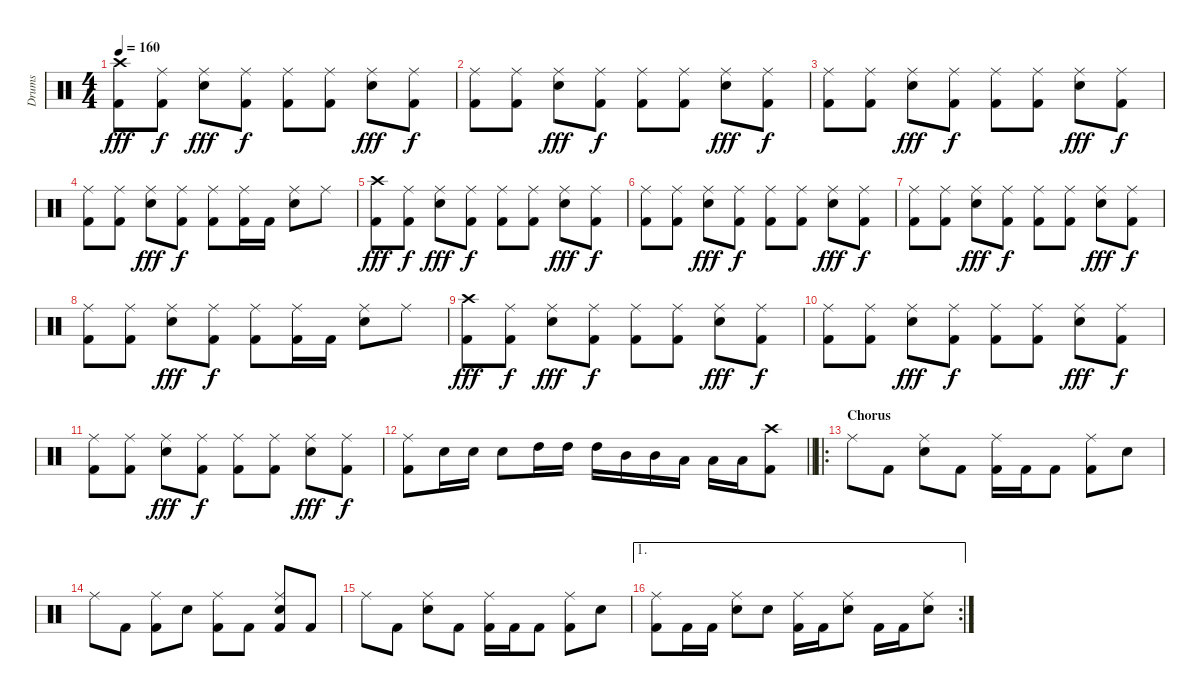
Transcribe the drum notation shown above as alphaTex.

\track ("Drums" "Drums") {instrument percussion}
\staff {score}
\articulation defaults
\ts (4 4)
\tempo 160
\clef neutral
\ks c
("Kick (hit) 2" "Crash high (hit)").8{dy fff} ("Kick (hit) 2" "Ride (middle)").8{dy f} ("Snare (hit) 2" "Ride (middle)").8{dy fff} ("Kick (hit) 2" "Ride (middle)").8{dy f} ("Kick (hit) 2" "Ride (middle)").8 ("Kick (hit) 2" "Ride (middle)").8 ("Snare (hit) 2" "Ride (middle)").8{dy fff} ("Kick (hit) 2" "Ride (middle)").8{dy f} |
("Kick (hit) 2" "Ride (middle)").8 ("Kick (hit) 2" "Ride (middle)").8 ("Snare (hit) 2" "Ride (middle)").8{dy fff} ("Kick (hit) 2" "Ride (middle)").8{dy f} ("Kick (hit) 2" "Ride (middle)").8 ("Kick (hit) 2" "Ride (middle)").8 ("Snare (hit) 2" "Ride (middle)").8{dy fff} ("Kick (hit) 2" "Ride (middle)").8{dy f} |
("Kick (hit) 2" "Ride (middle)").8 ("Kick (hit) 2" "Ride (middle)").8 ("Snare (hit) 2" "Ride (middle)").8{dy fff} ("Kick (hit) 2" "Ride (middle)").8{dy f} ("Kick (hit) 2" "Ride (middle)").8 ("Kick (hit) 2" "Ride (middle)").8 ("Snare (hit) 2" "Ride (middle)").8{dy fff} ("Kick (hit) 2" "Ride (middle)").8{dy f} |
("Kick (hit) 2" "Ride (middle)").8 ("Kick (hit) 2" "Ride (middle)").8 ("Snare (hit) 2" "Ride (middle)").8{dy fff} ("Kick (hit) 2" "Ride (middle)").8{dy f} ("Kick (hit) 2" "Ride (middle)").8 ("Kick (hit) 2" "Ride (middle)").16 "Kick (hit) 2".16 ("Snare (hit) 2" "Ride (middle)").8 "Ride (middle)".8 |
("Kick (hit) 2" "Crash high (hit)").8{dy fff} ("Kick (hit) 2" "Ride (middle)").8{dy f} ("Snare (hit) 2" "Ride (middle)").8{dy fff} ("Kick (hit) 2" "Ride (middle)").8{dy f} ("Kick (hit) 2" "Ride (middle)").8 ("Kick (hit) 2" "Ride (middle)").8 ("Snare (hit) 2" "Ride (middle)").8{dy fff} ("Kick (hit) 2" "Ride (middle)").8{dy f} |
("Kick (hit) 2" "Ride (middle)").8 ("Kick (hit) 2" "Ride (middle)").8 ("Snare (hit) 2" "Ride (middle)").8{dy fff} ("Kick (hit) 2" "Ride (middle)").8{dy f} ("Kick (hit) 2" "Ride (middle)").8 ("Kick (hit) 2" "Ride (middle)").8 ("Snare (hit) 2" "Ride (middle)").8{dy fff} ("Kick (hit) 2" "Ride (middle)").8{dy f} |
("Kick (hit) 2" "Ride (middle)").8 ("Kick (hit) 2" "Ride (middle)").8 ("Snare (hit) 2" "Ride (middle)").8{dy fff} ("Kick (hit) 2" "Ride (middle)").8{dy f} ("Kick (hit) 2" "Ride (middle)").8 ("Kick (hit) 2" "Ride (middle)").8 ("Snare (hit) 2" "Ride (middle)").8{dy fff} ("Kick (hit) 2" "Ride (middle)").8{dy f} |
("Kick (hit) 2" "Ride (middle)").8 ("Kick (hit) 2" "Ride (middle)").8 ("Snare (hit) 2" "Ride (middle)").8{dy fff} ("Kick (hit) 2" "Ride (middle)").8{dy f} ("Kick (hit) 2" "Ride (middle)").8 ("Kick (hit) 2" "Ride (middle)").16 "Kick (hit) 2".16 ("Snare (hit) 2" "Ride (middle)").8 "Ride (middle)".8 |
("Kick (hit) 2" "Crash high (hit)").8{dy fff} ("Kick (hit) 2" "Ride (middle)").8{dy f} ("Snare (hit) 2" "Ride (middle)").8{dy fff} ("Kick (hit) 2" "Ride (middle)").8{dy f} ("Kick (hit) 2" "Ride (middle)").8 ("Kick (hit) 2" "Ride (middle)").8 ("Snare (hit) 2" "Ride (middle)").8{dy fff} ("Kick (hit) 2" "Ride (middle)").8{dy f} |
("Kick (hit) 2" "Ride (middle)").8 ("Kick (hit) 2" "Ride (middle)").8 ("Snare (hit) 2" "Ride (middle)").8{dy fff} ("Kick (hit) 2" "Ride (middle)").8{dy f} ("Kick (hit) 2" "Ride (middle)").8 ("Kick (hit) 2" "Ride (middle)").8 ("Snare (hit) 2" "Ride (middle)").8{dy fff} ("Kick (hit) 2" "Ride (middle)").8{dy f} |
("Kick (hit) 2" "Ride (middle)").8 ("Kick (hit) 2" "Ride (middle)").8 ("Snare (hit) 2" "Ride (middle)").8{dy fff} ("Kick (hit) 2" "Ride (middle)").8{dy f} ("Kick (hit) 2" "Ride (middle)").8 ("Kick (hit) 2" "Ride (middle)").8 ("Snare (hit) 2" "Ride (middle)").8{dy fff} ("Kick (hit) 2" "Ride (middle)").8{dy f} |
\barLineRight lightlight
("Kick (hit) 2" "Ride (middle)").8 "Snare (hit) 2".16 "Snare (hit) 2".16 "Snare (hit) 2".8 "High Tom (hit)".16 "High Tom (hit)".16 "High Tom (hit)".16 "Mid Tom (hit)".16 "Mid Tom (hit)".16 "Low Tom (hit)".16 "Low Tom (hit)".16 "Low Tom (hit)".16 ("Kick (hit) 2" "Crash high (hit)").8 |
\ro
\section ("" "Chorus")
"Ride (middle)".8 "Kick (hit) 2".8 ("Snare (hit) 2" "Ride (middle)").8 "Kick (hit) 2".8 ("Kick (hit) 2" "Ride (middle)").16 "Kick (hit) 2".16 "Kick (hit) 2".8 ("Kick (hit) 2" "Ride (middle)").8 "Snare (hit) 2".8 |
"Ride (middle)".8 "Kick (hit) 2".8 ("Kick (hit) 2" "Ride (middle)").8 "Snare (hit) 2".8 ("Kick (hit) 2" "Ride (middle)").8 "Kick (hit) 2".8 ("Kick (hit) 2" "Snare (hit) 2" "Ride (middle)").8 "Kick (hit) 2".8 |
"Ride (middle)".8 "Kick (hit) 2".8 ("Snare (hit) 2" "Ride (middle)").8 "Kick (hit) 2".8 ("Kick (hit) 2" "Ride (middle)").16 "Kick (hit) 2".16 "Kick (hit) 2".8 ("Kick (hit) 2" "Ride (middle)").8 "Snare (hit) 2".8 |
\ae 1
\rc 2
("Kick (hit) 2" "Ride (middle)").8 "Kick (hit) 2".16 "Kick (hit) 2".16 ("Snare (hit) 2" "Ride (middle)").8 "Snare (hit) 2".8 ("Kick (hit) 2" "Ride (middle)").16 "Kick (hit) 2".16 ("Snare (hit) 2" "Ride (middle)").8 "Kick (hit) 2".16 "Kick (hit) 2".16 ("Snare (hit) 2" "Ride (middle)").8
